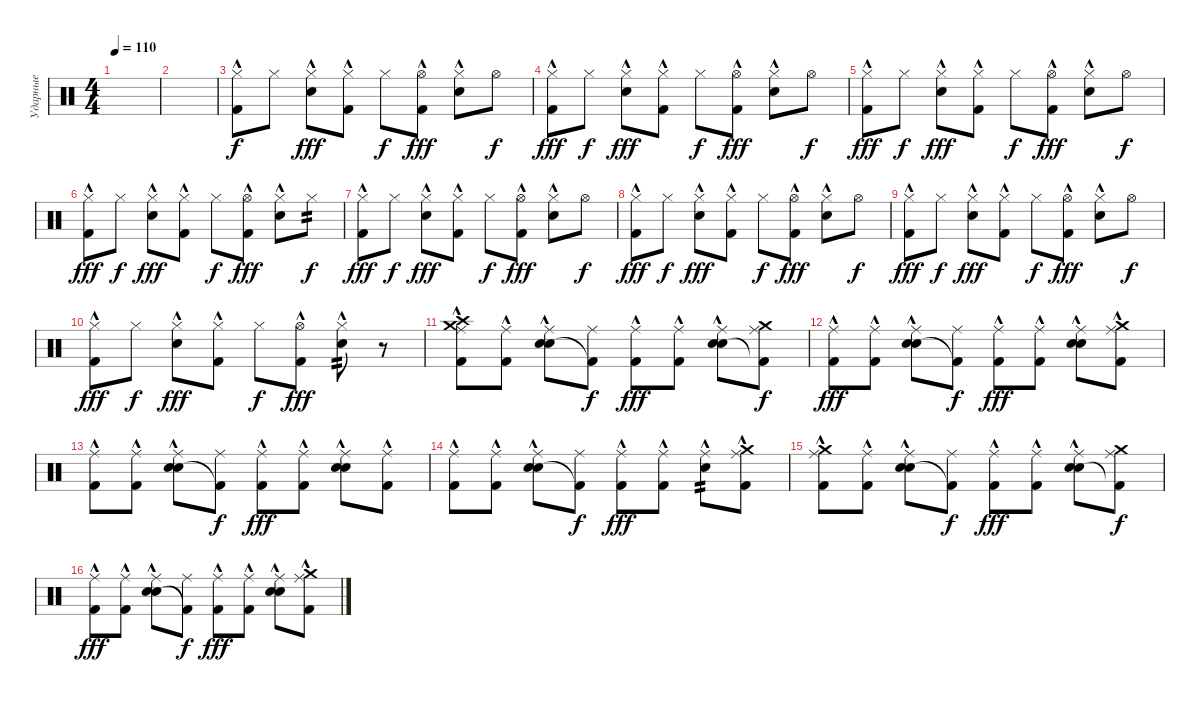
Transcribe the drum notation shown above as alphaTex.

\track ("Ударные" "Ударные") {instrument percussion}
\staff {score}
\articulation defaults
\ts (4 4)
\tempo 110
\clef neutral
\ks c
|
|
("Kick (hit) 2"{hac} "Hi-Hat (closed)").8 "Hi-Hat (closed)".8{dy f} ("Snare (hit) 2"{hac} "Hi-Hat (closed)").8{dy fff} ("Kick (hit) 2"{hac} "Hi-Hat (closed)").8 "Hi-Hat (closed)".8{dy f} ("Kick (hit) 2"{hac} "Hi-Hat (open)").8{dy fff} ("Hi-Hat (closed)" "Snare (hit) 2"{hac}).8 "Hi-Hat (open)".8{dy f} |
("Kick (hit) 2"{hac} "Hi-Hat (closed)").8{dy fff} "Hi-Hat (closed)".8{dy f} ("Snare (hit) 2"{hac} "Hi-Hat (closed)").8{dy fff} ("Kick (hit) 2"{hac} "Hi-Hat (closed)").8 "Hi-Hat (closed)".8{dy f} ("Kick (hit) 2"{hac} "Hi-Hat (open)").8{dy fff} ("Hi-Hat (closed)" "Snare (hit) 2"{hac}).8 "Hi-Hat (open)".8{dy f} |
("Kick (hit) 2"{hac} "Hi-Hat (closed)").8{dy fff} "Hi-Hat (closed)".8{dy f} ("Snare (hit) 2"{hac} "Hi-Hat (closed)").8{dy fff} ("Kick (hit) 2"{hac} "Hi-Hat (closed)").8 "Hi-Hat (closed)".8{dy f} ("Kick (hit) 2"{hac} "Hi-Hat (open)").8{dy fff} ("Hi-Hat (closed)" "Snare (hit) 2"{hac}).8 "Hi-Hat (open)".8{dy f} |
("Kick (hit) 2"{hac} "Hi-Hat (closed)").8{dy fff} "Hi-Hat (closed)".8{dy f} ("Snare (hit) 2"{hac} "Hi-Hat (closed)").8{dy fff} ("Kick (hit) 2"{hac} "Hi-Hat (closed)").8 "Hi-Hat (closed)".8{dy f} ("Kick (hit) 2"{hac} "Hi-Hat (open)").8{dy fff} ("Hi-Hat (closed)" "Snare (hit) 2"{hac}).8 "Hi-Hat (closed)".8{tp 2 dy f} |
("Kick (hit) 2"{hac} "Hi-Hat (closed)").8{dy fff} "Hi-Hat (closed)".8{dy f} ("Snare (hit) 2"{hac} "Hi-Hat (closed)").8{dy fff} ("Kick (hit) 2"{hac} "Hi-Hat (closed)").8 "Hi-Hat (closed)".8{dy f} ("Kick (hit) 2"{hac} "Hi-Hat (open)").8{dy fff} ("Hi-Hat (closed)" "Snare (hit) 2"{hac}).8 "Hi-Hat (open)".8{dy f} |
("Kick (hit) 2"{hac} "Hi-Hat (closed)").8{dy fff} "Hi-Hat (closed)".8{dy f} ("Snare (hit) 2"{hac} "Hi-Hat (closed)").8{dy fff} ("Kick (hit) 2"{hac} "Hi-Hat (closed)").8 "Hi-Hat (closed)".8{dy f} ("Kick (hit) 2"{hac} "Hi-Hat (open)").8{dy fff} ("Hi-Hat (closed)" "Snare (hit) 2"{hac}).8 "Hi-Hat (open)".8{dy f} |
("Kick (hit) 2"{hac} "Hi-Hat (closed)").8{dy fff} "Hi-Hat (closed)".8{dy f} ("Snare (hit) 2"{hac} "Hi-Hat (closed)").8{dy fff} ("Kick (hit) 2"{hac} "Hi-Hat (closed)").8 "Hi-Hat (closed)".8{dy f} ("Kick (hit) 2"{hac} "Hi-Hat (open)").8{dy fff} ("Hi-Hat (closed)" "Snare (hit) 2"{hac}).8 "Hi-Hat (open)".8{dy f} |
("Kick (hit) 2"{hac} "Hi-Hat (closed)").8{dy fff} "Hi-Hat (closed)".8{dy f} ("Snare (hit) 2"{hac} "Hi-Hat (closed)").8{dy fff} ("Kick (hit) 2"{hac} "Hi-Hat (closed)").8 "Hi-Hat (closed)".8{dy f} ("Kick (hit) 2"{hac} "Hi-Hat (open)").8{dy fff} ("Hi-Hat (closed)" "Snare (hit) 2"{hac}).8{tp 2} r.8 |
("Kick (hit) 2"{hac} "Crash high (hit)" "Crash medium (hit)" "Ride (middle)").8 ("Kick (hit) 2"{hac} "Ride (middle)").8 ("Snare (hit) 2"{hac} "Electric Snare (hit)"{hac} "Ride (middle)").8 ("Kick (hit) 2"{t} "Ride (middle)").8{dy f} ("Kick (hit) 2"{hac} "Ride (middle)").8{dy fff} ("Kick (hit) 2"{hac} "Ride (middle)").8 ("Snare (hit) 2"{hac} "Electric Snare (hit)"{hac} "Ride (middle)").8 ("Kick (hit) 2"{t} "Crash medium (hit)" "Ride (middle)").8{dy f} |
("Kick (hit) 2"{hac} "Ride (middle)").8{dy fff} ("Kick (hit) 2"{hac} "Ride (middle)").8 ("Snare (hit) 2"{hac} "Electric Snare (hit)"{hac} "Ride (middle)").8 ("Kick (hit) 2"{t} "Ride (middle)").8{dy f} ("Kick (hit) 2"{hac} "Ride (middle)").8{dy fff} ("Kick (hit) 2"{hac} "Ride (middle)").8 ("Snare (hit) 2"{hac} "Electric Snare (hit)"{hac} "Ride (middle)").8 ("Kick (hit) 2"{hac} "Crash medium (hit)" "Ride (middle)").8 |
("Kick (hit) 2"{hac} "Ride (middle)").8 ("Kick (hit) 2"{hac} "Ride (middle)").8 ("Snare (hit) 2"{hac} "Electric Snare (hit)"{hac} "Ride (middle)").8 ("Kick (hit) 2"{t} "Ride (middle)").8{dy f} ("Kick (hit) 2"{hac} "Ride (middle)").8{dy fff} ("Kick (hit) 2"{hac} "Ride (middle)").8 ("Snare (hit) 2"{hac} "Electric Snare (hit)"{hac} "Ride (middle)").8 ("Kick (hit) 2"{hac} "Ride (middle)").8 |
("Kick (hit) 2"{hac} "Ride (middle)").8 ("Kick (hit) 2"{hac} "Ride (middle)").8 ("Snare (hit) 2"{hac} "Electric Snare (hit)"{hac} "Ride (middle)").8 ("Kick (hit) 2"{t} "Ride (middle)").8{dy f} ("Kick (hit) 2"{hac} "Ride (middle)").8{dy fff} ("Kick (hit) 2"{hac} "Ride (middle)").8 ("Snare (hit) 2"{hac} "Ride (middle)").8{tp 2} ("Kick (hit) 2"{hac} "Crash medium (hit)" "Ride (middle)").8 |
("Kick (hit) 2"{hac} "Crash medium (hit)" "Ride (middle)").8 ("Kick (hit) 2"{hac} "Ride (middle)").8 ("Snare (hit) 2"{hac} "Electric Snare (hit)"{hac} "Ride (middle)").8 ("Kick (hit) 2"{t} "Ride (middle)").8{dy f} ("Kick (hit) 2"{hac} "Ride (middle)").8{dy fff} ("Kick (hit) 2"{hac} "Ride (middle)").8 ("Snare (hit) 2"{hac} "Electric Snare (hit)"{hac} "Ride (middle)").8 ("Kick (hit) 2"{t} "Crash medium (hit)" "Ride (middle)").8{dy f} |
("Kick (hit) 2"{hac} "Ride (middle)").8{dy fff} ("Kick (hit) 2"{hac} "Ride (middle)").8 ("Snare (hit) 2"{hac} "Electric Snare (hit)"{hac} "Ride (middle)").8 ("Kick (hit) 2"{t} "Ride (middle)").8{dy f} ("Kick (hit) 2"{hac} "Ride (middle)").8{dy fff} ("Kick (hit) 2"{hac} "Ride (middle)").8 ("Snare (hit) 2"{hac} "Electric Snare (hit)"{hac} "Ride (middle)").8 ("Kick (hit) 2"{hac} "Crash medium (hit)" "Ride (middle)").8
